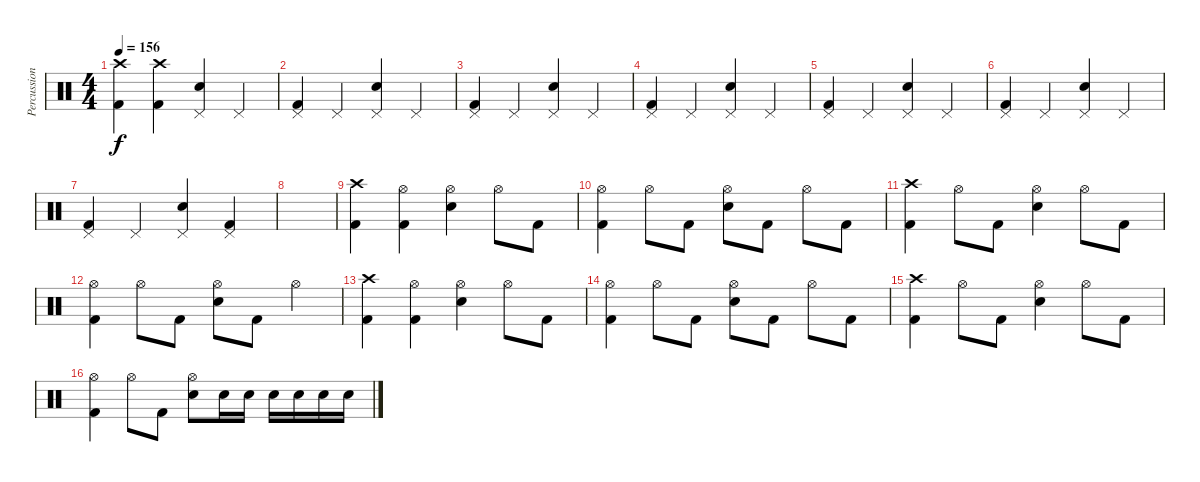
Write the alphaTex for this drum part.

\track ("Percussions" "Percussion") {instrument percussion}
\staff {score}
\articulation defaults
\ts (4 4)
\tempo 156
\clef neutral
\ks c
("Crash high (hit)" "Kick (hit) 2").4{dy f} ("Crash high (hit)" "Kick (hit) 2").4 ("Pedal Hi-Hat (hit)" "Electric Snare (hit)").4 "Pedal Hi-Hat (hit)".4 |
("Pedal Hi-Hat (hit)" "Kick (hit) 2").4 "Pedal Hi-Hat (hit)".4 ("Pedal Hi-Hat (hit)" "Electric Snare (hit)").4 "Pedal Hi-Hat (hit)".4 |
("Pedal Hi-Hat (hit)" "Kick (hit) 2").4 "Pedal Hi-Hat (hit)".4 ("Pedal Hi-Hat (hit)" "Electric Snare (hit)").4 "Pedal Hi-Hat (hit)".4 |
("Pedal Hi-Hat (hit)" "Kick (hit) 2").4 "Pedal Hi-Hat (hit)".4 ("Pedal Hi-Hat (hit)" "Electric Snare (hit)").4 "Pedal Hi-Hat (hit)".4 |
("Pedal Hi-Hat (hit)" "Kick (hit) 2").4 "Pedal Hi-Hat (hit)".4 ("Pedal Hi-Hat (hit)" "Electric Snare (hit)").4 "Pedal Hi-Hat (hit)".4 |
("Pedal Hi-Hat (hit)" "Kick (hit) 2").4 "Pedal Hi-Hat (hit)".4 ("Pedal Hi-Hat (hit)" "Electric Snare (hit)").4 "Pedal Hi-Hat (hit)".4 |
("Pedal Hi-Hat (hit)" "Kick (hit) 2").4 "Pedal Hi-Hat (hit)".4 ("Pedal Hi-Hat (hit)" "Electric Snare (hit)").4 ("Pedal Hi-Hat (hit)" "Kick (hit) 2").4 |
|
("Crash high (hit)" "Kick (hit) 2").4 ("Hi-Hat (open)" "Kick (hit) 2").4 ("Hi-Hat (open)" "Electric Snare (hit)").4 "Hi-Hat (open)".8 "Kick (hit) 2".8 |
("Hi-Hat (open)" "Kick (hit) 2").4 "Hi-Hat (open)".8 "Kick (hit) 2".8 ("Hi-Hat (open)" "Electric Snare (hit)").8 "Kick (hit) 2".8 "Hi-Hat (open)".8 "Kick (hit) 2".8 |
("Crash high (hit)" "Kick (hit) 2").4 "Hi-Hat (open)".8 "Kick (hit) 2".8 ("Hi-Hat (open)" "Electric Snare (hit)").4 "Hi-Hat (open)".8 "Kick (hit) 2".8 |
("Hi-Hat (open)" "Kick (hit) 2").4 "Hi-Hat (open)".8 "Kick (hit) 2".8 ("Hi-Hat (open)" "Electric Snare (hit)").8 "Kick (hit) 2".8 "Hi-Hat (open)".4 |
("Crash high (hit)" "Kick (hit) 2").4 ("Hi-Hat (open)" "Kick (hit) 2").4 ("Hi-Hat (open)" "Electric Snare (hit)").4 "Hi-Hat (open)".8 "Kick (hit) 2".8 |
("Hi-Hat (open)" "Kick (hit) 2").4 "Hi-Hat (open)".8 "Kick (hit) 2".8 ("Hi-Hat (open)" "Electric Snare (hit)").8 "Kick (hit) 2".8 "Hi-Hat (open)".8 "Kick (hit) 2".8 |
("Crash high (hit)" "Kick (hit) 2").4 "Hi-Hat (open)".8 "Kick (hit) 2".8 ("Hi-Hat (open)" "Electric Snare (hit)").4 "Hi-Hat (open)".8 "Kick (hit) 2".8 |
("Hi-Hat (open)" "Kick (hit) 2").4 "Hi-Hat (open)".8 "Kick (hit) 2".8 ("Hi-Hat (open)" "Electric Snare (hit)").8 "Electric Snare (hit)".16 "Electric Snare (hit)".16 "Electric Snare (hit)".16 "Electric Snare (hit)".16 "Electric Snare (hit)".16 "Electric Snare (hit)".16
